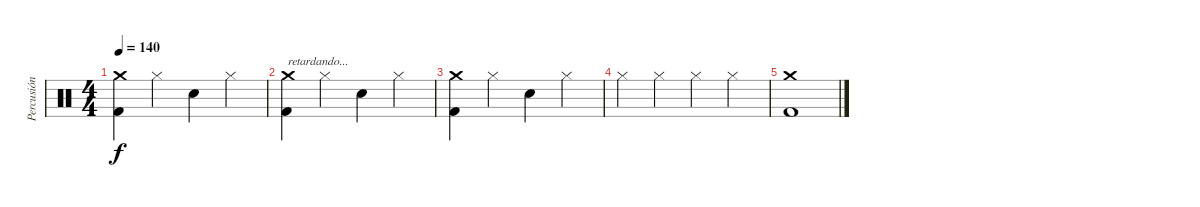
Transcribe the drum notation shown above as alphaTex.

\track ("Percusión" "Percusión") {instrument percussion}
\staff {score}
\articulation defaults
\ts (4 4)
\tempo 140
\clef neutral
\ks c
("Kick (hit) 2" "Crash medium (hit)").4{dy f} "Hi-Hat (closed)".4 "Electric Snare (hit)".4 "Hi-Hat (closed)".4 |
("Kick (hit) 2" "Crash medium (hit)").4{txt "retardando..."} "Hi-Hat (closed)".4 "Electric Snare (hit)".4 "Hi-Hat (closed)".4 |
("Kick (hit) 2" "Crash medium (hit)").4 "Hi-Hat (closed)".4 "Electric Snare (hit)".4 "Hi-Hat (closed)".4 |
"Hi-Hat (closed)".4 "Hi-Hat (closed)".4 "Hi-Hat (closed)".4 "Hi-Hat (closed)".4 |
("Kick (hit) 2" "Crash medium (hit)").1
